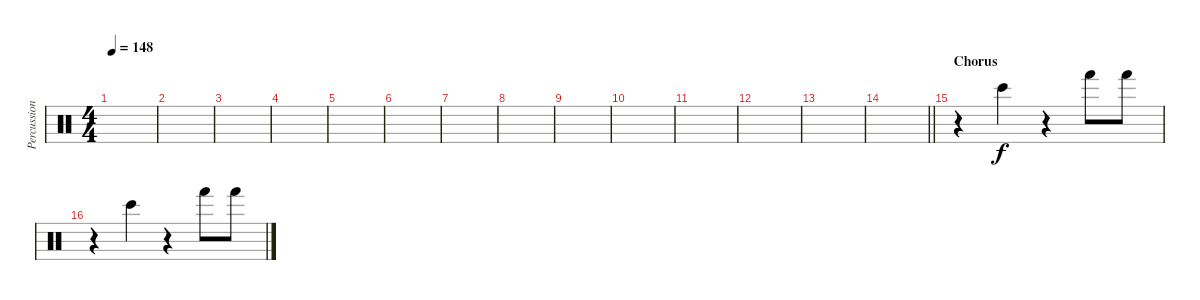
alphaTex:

\track ("Percussions" "Percussion") {instrument percussion}
\staff {score}
\articulation defaults
\ts (4 4)
\tempo 148
\clef neutral
\ks c
|
|
|
|
|
|
|
|
|
|
|
|
|
\barLineRight lightlight
|
\section ("" "Chorus")
r.4 "Bongo High (hit)".4 r.4 "Hand (hit)".8 "Hand (hit)".8 |
r.4 "Bongo High (hit)".4 r.4 "Hand (hit)".8 "Hand (hit)".8
